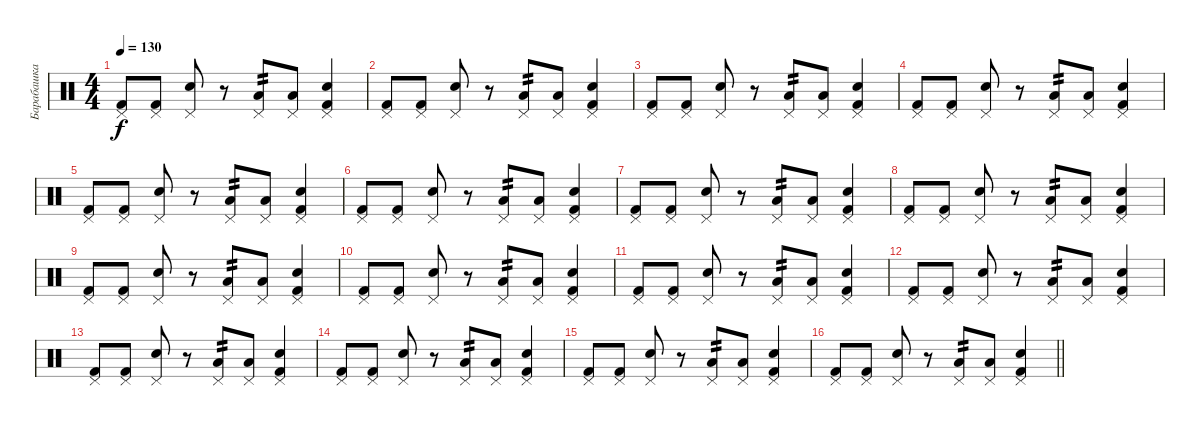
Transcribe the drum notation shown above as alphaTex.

\track ("Барабашка" "Барабашка") {instrument percussion}
\staff {score}
\articulation defaults
\ts (4 4)
\tempo 130
\clef neutral
\ks c
("Pedal Hi-Hat (hit)" "Kick (hit) 2").8{dy f} ("Pedal Hi-Hat (hit)" "Kick (hit) 2").8 ("Snare (hit) 2" "Pedal Hi-Hat (hit)").8 r.8 ("Low Tom (hit)" "Pedal Hi-Hat (hit)").8{tp 2} ("Low Tom (hit)" "Pedal Hi-Hat (hit)").8 ("Snare (hit) 2" "Pedal Hi-Hat (hit)" "Kick (hit) 2").4 |
("Pedal Hi-Hat (hit)" "Kick (hit) 2").8 ("Pedal Hi-Hat (hit)" "Kick (hit) 2").8 ("Snare (hit) 2" "Pedal Hi-Hat (hit)").8 r.8 ("Low Tom (hit)" "Pedal Hi-Hat (hit)").8{tp 2} ("Low Tom (hit)" "Pedal Hi-Hat (hit)").8 ("Snare (hit) 2" "Pedal Hi-Hat (hit)" "Kick (hit) 2").4 |
("Pedal Hi-Hat (hit)" "Kick (hit) 2").8 ("Pedal Hi-Hat (hit)" "Kick (hit) 2").8 ("Snare (hit) 2" "Pedal Hi-Hat (hit)").8 r.8 ("Low Tom (hit)" "Pedal Hi-Hat (hit)").8{tp 2} ("Low Tom (hit)" "Pedal Hi-Hat (hit)").8 ("Snare (hit) 2" "Pedal Hi-Hat (hit)" "Kick (hit) 2").4 |
("Pedal Hi-Hat (hit)" "Kick (hit) 2").8 ("Pedal Hi-Hat (hit)" "Kick (hit) 2").8 ("Snare (hit) 2" "Pedal Hi-Hat (hit)").8 r.8 ("Low Tom (hit)" "Pedal Hi-Hat (hit)").8{tp 2} ("Low Tom (hit)" "Pedal Hi-Hat (hit)").8 ("Snare (hit) 2" "Pedal Hi-Hat (hit)" "Kick (hit) 2").4 |
("Pedal Hi-Hat (hit)" "Kick (hit) 2").8 ("Pedal Hi-Hat (hit)" "Kick (hit) 2").8 ("Snare (hit) 2" "Pedal Hi-Hat (hit)").8 r.8 ("Low Tom (hit)" "Pedal Hi-Hat (hit)").8{tp 2} ("Low Tom (hit)" "Pedal Hi-Hat (hit)").8 ("Snare (hit) 2" "Pedal Hi-Hat (hit)" "Kick (hit) 2").4 |
("Pedal Hi-Hat (hit)" "Kick (hit) 2").8 ("Pedal Hi-Hat (hit)" "Kick (hit) 2").8 ("Snare (hit) 2" "Pedal Hi-Hat (hit)").8 r.8 ("Low Tom (hit)" "Pedal Hi-Hat (hit)").8{tp 2} ("Low Tom (hit)" "Pedal Hi-Hat (hit)").8 ("Snare (hit) 2" "Pedal Hi-Hat (hit)" "Kick (hit) 2").4 |
("Pedal Hi-Hat (hit)" "Kick (hit) 2").8 ("Pedal Hi-Hat (hit)" "Kick (hit) 2").8 ("Snare (hit) 2" "Pedal Hi-Hat (hit)").8 r.8 ("Low Tom (hit)" "Pedal Hi-Hat (hit)").8{tp 2} ("Low Tom (hit)" "Pedal Hi-Hat (hit)").8 ("Snare (hit) 2" "Pedal Hi-Hat (hit)" "Kick (hit) 2").4 |
("Pedal Hi-Hat (hit)" "Kick (hit) 2").8 ("Pedal Hi-Hat (hit)" "Kick (hit) 2").8 ("Snare (hit) 2" "Pedal Hi-Hat (hit)").8 r.8 ("Low Tom (hit)" "Pedal Hi-Hat (hit)").8{tp 2} ("Low Tom (hit)" "Pedal Hi-Hat (hit)").8 ("Snare (hit) 2" "Pedal Hi-Hat (hit)" "Kick (hit) 2").4 |
("Pedal Hi-Hat (hit)" "Kick (hit) 2").8 ("Pedal Hi-Hat (hit)" "Kick (hit) 2").8 ("Snare (hit) 2" "Pedal Hi-Hat (hit)").8 r.8 ("Low Tom (hit)" "Pedal Hi-Hat (hit)").8{tp 2} ("Low Tom (hit)" "Pedal Hi-Hat (hit)").8 ("Snare (hit) 2" "Pedal Hi-Hat (hit)" "Kick (hit) 2").4 |
("Pedal Hi-Hat (hit)" "Kick (hit) 2").8 ("Pedal Hi-Hat (hit)" "Kick (hit) 2").8 ("Snare (hit) 2" "Pedal Hi-Hat (hit)").8 r.8 ("Low Tom (hit)" "Pedal Hi-Hat (hit)").8{tp 2} ("Low Tom (hit)" "Pedal Hi-Hat (hit)").8 ("Snare (hit) 2" "Pedal Hi-Hat (hit)" "Kick (hit) 2").4 |
("Pedal Hi-Hat (hit)" "Kick (hit) 2").8 ("Pedal Hi-Hat (hit)" "Kick (hit) 2").8 ("Snare (hit) 2" "Pedal Hi-Hat (hit)").8 r.8 ("Low Tom (hit)" "Pedal Hi-Hat (hit)").8{tp 2} ("Low Tom (hit)" "Pedal Hi-Hat (hit)").8 ("Snare (hit) 2" "Pedal Hi-Hat (hit)" "Kick (hit) 2").4 |
("Pedal Hi-Hat (hit)" "Kick (hit) 2").8 ("Pedal Hi-Hat (hit)" "Kick (hit) 2").8 ("Snare (hit) 2" "Pedal Hi-Hat (hit)").8 r.8 ("Low Tom (hit)" "Pedal Hi-Hat (hit)").8{tp 2} ("Low Tom (hit)" "Pedal Hi-Hat (hit)").8 ("Snare (hit) 2" "Pedal Hi-Hat (hit)" "Kick (hit) 2").4 |
("Pedal Hi-Hat (hit)" "Kick (hit) 2").8 ("Pedal Hi-Hat (hit)" "Kick (hit) 2").8 ("Snare (hit) 2" "Pedal Hi-Hat (hit)").8 r.8 ("Low Tom (hit)" "Pedal Hi-Hat (hit)").8{tp 2} ("Low Tom (hit)" "Pedal Hi-Hat (hit)").8 ("Snare (hit) 2" "Pedal Hi-Hat (hit)" "Kick (hit) 2").4 |
("Pedal Hi-Hat (hit)" "Kick (hit) 2").8 ("Pedal Hi-Hat (hit)" "Kick (hit) 2").8 ("Snare (hit) 2" "Pedal Hi-Hat (hit)").8 r.8 ("Low Tom (hit)" "Pedal Hi-Hat (hit)").8{tp 2} ("Low Tom (hit)" "Pedal Hi-Hat (hit)").8 ("Snare (hit) 2" "Pedal Hi-Hat (hit)" "Kick (hit) 2").4 |
("Pedal Hi-Hat (hit)" "Kick (hit) 2").8 ("Pedal Hi-Hat (hit)" "Kick (hit) 2").8 ("Snare (hit) 2" "Pedal Hi-Hat (hit)").8 r.8 ("Low Tom (hit)" "Pedal Hi-Hat (hit)").8{tp 2} ("Low Tom (hit)" "Pedal Hi-Hat (hit)").8 ("Snare (hit) 2" "Pedal Hi-Hat (hit)" "Kick (hit) 2").4 |
\barLineRight lightlight
("Pedal Hi-Hat (hit)" "Kick (hit) 2").8 ("Pedal Hi-Hat (hit)" "Kick (hit) 2").8 ("Snare (hit) 2" "Pedal Hi-Hat (hit)").8 r.8 ("Low Tom (hit)" "Pedal Hi-Hat (hit)").8{tp 2} ("Low Tom (hit)" "Pedal Hi-Hat (hit)").8 ("Snare (hit) 2" "Pedal Hi-Hat (hit)" "Kick (hit) 2").4
